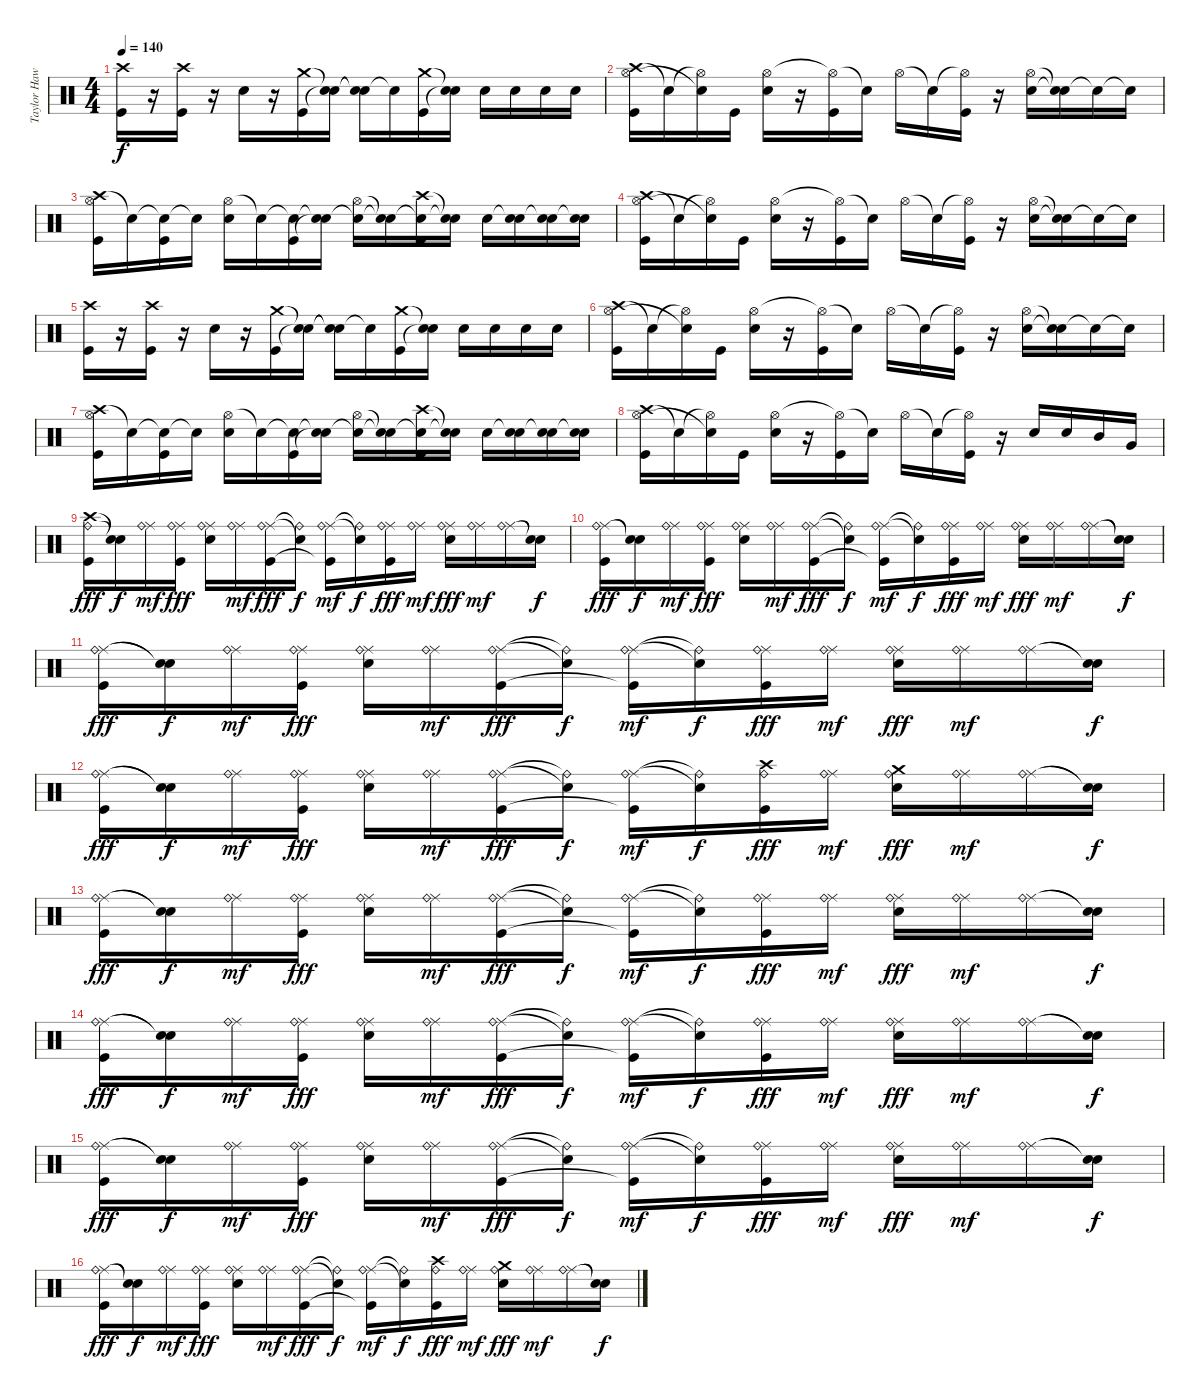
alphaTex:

\track ("Taylor Hawkings (Batería)" "Taylor Haw") {instrument percussion}
\staff {score}
\articulation defaults
\ts (4 4)
\tempo 140
\clef neutral
\ks c
("Crash high (hit)" "Kick (hit)").16{dy f} r.16 ("Crash high (hit)" "Kick (hit)").16 r.16 "Electric Snare (hit)".16 r.16 ("Crash medium (hit)" "Kick (hit)").16 ("Snare (hit)"{t} "Snare (hit)"{t}).16 ("Snare (hit)"{t} "Snare (hit)"{t}).16 "Snare (hit)"{t}.16 ("Crash medium (hit)" "Kick (hit)").16 ("Snare (hit)"{t} "Snare (hit)"{t}).16 "Electric Snare (hit)".16 "Electric Snare (hit)".16 "Electric Snare (hit)".16 "Electric Snare (hit)".16 |
("Crash high (hit)" "Hi-Hat (open)" "Kick (hit)").16 "Snare (hit)"{t}.16 ("Hi-Hat (open)"{t} "Snare (hit)"{t}).16 "Kick (hit)".16 ("Hi-Hat (open)" "Electric Snare (hit)").16 r.16 ("Hi-Hat (open)"{t} "Kick (hit)").16 "Snare (hit)"{t}.16 "Hi-Hat (open)".16 "Snare (hit)"{t}.16 ("Hi-Hat (open)"{t} "Kick (hit)").16 r.16 ("Hi-Hat (open)" "Electric Snare (hit)").16 ("Snare (hit)"{t} "Electric Snare (hit)"{t}).16 "Snare (hit)"{t}.16 "Snare (hit)"{t}.16 |
("Crash high (hit)" "Hi-Hat (open)" "Kick (hit)").16 "Snare (hit)"{t}.16 ("Snare (hit)"{t} "Kick (hit)").16 "Snare (hit)"{t}.16 ("Hi-Hat (open)" "Electric Snare (hit)").16 "Snare (hit)"{t}.16 ("Snare (hit)"{t} "Kick (hit)").16 ("Snare (hit)"{t} "Snare (hit)"{t}).16 ("Hi-Hat (open)" "Snare (hit)"{t}).16 ("Snare (hit)"{t} "Snare (hit)"{t}).16 ("Crash high (hit)" "Snare (hit)"{t} "Kick (hit)").16 ("Snare (hit)"{t} "Snare (hit)"{t}).16 "Electric Snare (hit)".16 ("Snare (hit)"{t} "Electric Snare (hit)").16 ("Snare (hit)"{t} "Electric Snare (hit)").16 ("Snare (hit)"{t} "Electric Snare (hit)").16 |
("Crash high (hit)" "Hi-Hat (open)" "Kick (hit)").16 "Snare (hit)"{t}.16 ("Hi-Hat (open)"{t} "Snare (hit)"{t}).16 "Kick (hit)".16 ("Hi-Hat (open)" "Electric Snare (hit)").16 r.16 ("Hi-Hat (open)"{t} "Kick (hit)").16 "Snare (hit)"{t}.16 "Hi-Hat (open)".16 "Snare (hit)"{t}.16 ("Hi-Hat (open)"{t} "Kick (hit)").16 r.16 ("Hi-Hat (open)" "Electric Snare (hit)").16 ("Snare (hit)"{t} "Electric Snare (hit)"{t}).16 "Snare (hit)"{t}.16 "Snare (hit)"{t}.16 |
("Crash high (hit)" "Kick (hit)").16 r.16 ("Crash high (hit)" "Kick (hit)").16 r.16 "Electric Snare (hit)".16 r.16 ("Crash medium (hit)" "Kick (hit)").16 ("Snare (hit)"{t} "Snare (hit)"{t}).16 ("Snare (hit)"{t} "Snare (hit)"{t}).16 "Snare (hit)"{t}.16 ("Crash medium (hit)" "Kick (hit)").16 ("Snare (hit)"{t} "Snare (hit)"{t}).16 "Electric Snare (hit)".16 "Electric Snare (hit)".16 "Electric Snare (hit)".16 "Electric Snare (hit)".16 |
("Crash high (hit)" "Hi-Hat (open)" "Kick (hit)").16 "Snare (hit)"{t}.16 ("Hi-Hat (open)"{t} "Snare (hit)"{t}).16 "Kick (hit)".16 ("Hi-Hat (open)" "Electric Snare (hit)").16 r.16 ("Hi-Hat (open)"{t} "Kick (hit)").16 "Snare (hit)"{t}.16 "Hi-Hat (open)".16 "Snare (hit)"{t}.16 ("Hi-Hat (open)"{t} "Kick (hit)").16 r.16 ("Hi-Hat (open)" "Electric Snare (hit)").16 ("Snare (hit)"{t} "Electric Snare (hit)"{t}).16 "Snare (hit)"{t}.16 "Snare (hit)"{t}.16 |
("Crash high (hit)" "Hi-Hat (open)" "Kick (hit)").16 "Snare (hit)"{t}.16 ("Snare (hit)"{t} "Kick (hit)").16 "Snare (hit)"{t}.16 ("Hi-Hat (open)" "Electric Snare (hit)").16 "Snare (hit)"{t}.16 ("Snare (hit)"{t} "Kick (hit)").16 ("Snare (hit)"{t} "Snare (hit)"{t}).16 ("Hi-Hat (open)" "Snare (hit)"{t}).16 ("Snare (hit)"{t} "Snare (hit)"{t}).16 ("Crash high (hit)" "Snare (hit)"{t} "Kick (hit)").16 ("Snare (hit)"{t} "Snare (hit)"{t}).16 "Electric Snare (hit)".16 ("Snare (hit)"{t} "Electric Snare (hit)").16 ("Snare (hit)"{t} "Electric Snare (hit)").16 ("Snare (hit)"{t} "Electric Snare (hit)").16 |
("Crash high (hit)" "Hi-Hat (open)" "Kick (hit)").16 "Snare (hit)"{t}.16 ("Hi-Hat (open)"{t} "Snare (hit)"{t}).16 "Kick (hit)".16 ("Hi-Hat (open)" "Electric Snare (hit)").16 r.16 ("Hi-Hat (open)"{t} "Kick (hit)").16 "Snare (hit)"{t}.16 "Hi-Hat (open)".16 "Snare (hit)"{t}.16 ("Hi-Hat (open)"{t} "Kick (hit)").16 r.16 "Electric Snare (hit)".16 "Electric Snare (hit)".16 "Mid Tom (hit)".16 "Very Low Tom (hit)".16 |
("Crash high (hit)" "Ride (bell)" "Kick (hit)").16{dy fff} ("Snare (hit)"{t} "Snare (hit)"{t}).16{dy f} ("Ride (middle)" "Ride (bell)").16{dy mf} ("Ride (middle)" "Ride (bell)" "Kick (hit)").16{dy fff} ("Ride (middle)" "Ride (bell)" "Electric Snare (hit)").16 ("Ride (middle)" "Ride (bell)").16{dy mf} ("Ride (middle)" "Ride (bell)" "Kick (hit)").16{dy fff} ("Snare (hit)"{t} "Ride (bell)"{t}).16{dy f} ("Ride (middle)" "Ride (bell)" "Kick (hit)"{t}).16{dy mf} ("Snare (hit)"{t} "Ride (bell)"{t}).16{dy f} ("Ride (middle)" "Ride (bell)" "Kick (hit)").16{dy fff} ("Ride (middle)" "Ride (bell)").16{dy mf} ("Ride (middle)" "Ride (bell)" "Electric Snare (hit)").16{dy fff} ("Ride (middle)" "Ride (bell)").16{dy mf} ("Ride (middle)" "Ride (bell)").16 ("Snare (hit)"{t} "Snare (hit)"{t}).16{dy f} |
("Ride (middle)" "Ride (bell)" "Kick (hit)").16{dy fff} ("Snare (hit)"{t} "Snare (hit)"{t}).16{dy f} ("Ride (middle)" "Ride (bell)").16{dy mf} ("Ride (middle)" "Ride (bell)" "Kick (hit)").16{dy fff} ("Ride (middle)" "Ride (bell)" "Electric Snare (hit)").16 ("Ride (middle)" "Ride (bell)").16{dy mf} ("Ride (middle)" "Ride (bell)" "Kick (hit)").16{dy fff} ("Snare (hit)"{t} "Ride (bell)"{t}).16{dy f} ("Ride (middle)" "Ride (bell)" "Kick (hit)"{t}).16{dy mf} ("Snare (hit)"{t} "Ride (bell)"{t}).16{dy f} ("Ride (middle)" "Ride (bell)" "Kick (hit)").16{dy fff} ("Ride (middle)" "Ride (bell)").16{dy mf} ("Ride (middle)" "Ride (bell)" "Electric Snare (hit)").16{dy fff} ("Ride (middle)" "Ride (bell)").16{dy mf} ("Ride (middle)" "Ride (bell)").16 ("Snare (hit)"{t} "Snare (hit)"{t}).16{dy f} |
("Ride (middle)" "Ride (bell)" "Kick (hit)").16{dy fff} ("Snare (hit)"{t} "Snare (hit)"{t}).16{dy f} ("Ride (middle)" "Ride (bell)").16{dy mf} ("Ride (middle)" "Ride (bell)" "Kick (hit)").16{dy fff} ("Ride (middle)" "Ride (bell)" "Electric Snare (hit)").16 ("Ride (middle)" "Ride (bell)").16{dy mf} ("Ride (middle)" "Ride (bell)" "Kick (hit)").16{dy fff} ("Snare (hit)"{t} "Ride (bell)"{t}).16{dy f} ("Ride (middle)" "Ride (bell)" "Kick (hit)"{t}).16{dy mf} ("Snare (hit)"{t} "Ride (bell)"{t}).16{dy f} ("Ride (middle)" "Ride (bell)" "Kick (hit)").16{dy fff} ("Ride (middle)" "Ride (bell)").16{dy mf} ("Ride (middle)" "Ride (bell)" "Electric Snare (hit)").16{dy fff} ("Ride (middle)" "Ride (bell)").16{dy mf} ("Ride (middle)" "Ride (bell)").16 ("Snare (hit)"{t} "Snare (hit)"{t}).16{dy f} |
("Ride (middle)" "Ride (bell)" "Kick (hit)").16{dy fff} ("Snare (hit)"{t} "Snare (hit)"{t}).16{dy f} ("Ride (middle)" "Ride (bell)").16{dy mf} ("Ride (middle)" "Ride (bell)" "Kick (hit)").16{dy fff} ("Ride (middle)" "Ride (bell)" "Electric Snare (hit)").16 ("Ride (middle)" "Ride (bell)").16{dy mf} ("Ride (middle)" "Ride (bell)" "Kick (hit)").16{dy fff} ("Snare (hit)"{t} "Ride (bell)"{t}).16{dy f} ("Ride (middle)" "Ride (bell)" "Kick (hit)"{t}).16{dy mf} ("Snare (hit)"{t} "Ride (bell)"{t}).16{dy f} ("Crash high (hit)" "Ride (bell)" "Kick (hit)").16{dy fff} ("Ride (middle)" "Ride (bell)").16{dy mf} ("Crash medium (hit)" "Ride (bell)" "Electric Snare (hit)").16{dy fff} ("Ride (middle)" "Ride (bell)").16{dy mf} ("Ride (middle)" "Ride (bell)").16 ("Snare (hit)"{t} "Snare (hit)"{t}).16{dy f} |
("Ride (middle)" "Ride (bell)" "Kick (hit)").16{dy fff} ("Snare (hit)"{t} "Snare (hit)"{t}).16{dy f} ("Ride (middle)" "Ride (bell)").16{dy mf} ("Ride (middle)" "Ride (bell)" "Kick (hit)").16{dy fff} ("Ride (middle)" "Ride (bell)" "Electric Snare (hit)").16 ("Ride (middle)" "Ride (bell)").16{dy mf} ("Ride (middle)" "Ride (bell)" "Kick (hit)").16{dy fff} ("Snare (hit)"{t} "Ride (bell)"{t}).16{dy f} ("Ride (middle)" "Ride (bell)" "Kick (hit)"{t}).16{dy mf} ("Snare (hit)"{t} "Ride (bell)"{t}).16{dy f} ("Ride (middle)" "Ride (bell)" "Kick (hit)").16{dy fff} ("Ride (middle)" "Ride (bell)").16{dy mf} ("Ride (middle)" "Ride (bell)" "Electric Snare (hit)").16{dy fff} ("Ride (middle)" "Ride (bell)").16{dy mf} ("Ride (middle)" "Ride (bell)").16 ("Snare (hit)"{t} "Snare (hit)"{t}).16{dy f} |
("Ride (middle)" "Ride (bell)" "Kick (hit)").16{dy fff} ("Snare (hit)"{t} "Snare (hit)"{t}).16{dy f} ("Ride (middle)" "Ride (bell)").16{dy mf} ("Ride (middle)" "Ride (bell)" "Kick (hit)").16{dy fff} ("Ride (middle)" "Ride (bell)" "Electric Snare (hit)").16 ("Ride (middle)" "Ride (bell)").16{dy mf} ("Ride (middle)" "Ride (bell)" "Kick (hit)").16{dy fff} ("Snare (hit)"{t} "Ride (bell)"{t}).16{dy f} ("Ride (middle)" "Ride (bell)" "Kick (hit)"{t}).16{dy mf} ("Snare (hit)"{t} "Ride (bell)"{t}).16{dy f} ("Ride (middle)" "Ride (bell)" "Kick (hit)").16{dy fff} ("Ride (middle)" "Ride (bell)").16{dy mf} ("Ride (middle)" "Ride (bell)" "Electric Snare (hit)").16{dy fff} ("Ride (middle)" "Ride (bell)").16{dy mf} ("Ride (middle)" "Ride (bell)").16 ("Snare (hit)"{t} "Snare (hit)"{t}).16{dy f} |
("Ride (middle)" "Ride (bell)" "Kick (hit)").16{dy fff} ("Snare (hit)"{t} "Snare (hit)"{t}).16{dy f} ("Ride (middle)" "Ride (bell)").16{dy mf} ("Ride (middle)" "Ride (bell)" "Kick (hit)").16{dy fff} ("Ride (middle)" "Ride (bell)" "Electric Snare (hit)").16 ("Ride (middle)" "Ride (bell)").16{dy mf} ("Ride (middle)" "Ride (bell)" "Kick (hit)").16{dy fff} ("Snare (hit)"{t} "Ride (bell)"{t}).16{dy f} ("Ride (middle)" "Ride (bell)" "Kick (hit)"{t}).16{dy mf} ("Snare (hit)"{t} "Ride (bell)"{t}).16{dy f} ("Ride (middle)" "Ride (bell)" "Kick (hit)").16{dy fff} ("Ride (middle)" "Ride (bell)").16{dy mf} ("Ride (middle)" "Ride (bell)" "Electric Snare (hit)").16{dy fff} ("Ride (middle)" "Ride (bell)").16{dy mf} ("Ride (middle)" "Ride (bell)").16 ("Snare (hit)"{t} "Snare (hit)"{t}).16{dy f} |
("Ride (middle)" "Ride (bell)" "Kick (hit)").16{dy fff} ("Snare (hit)"{t} "Snare (hit)"{t}).16{dy f} ("Ride (middle)" "Ride (bell)").16{dy mf} ("Ride (middle)" "Ride (bell)" "Kick (hit)").16{dy fff} ("Ride (middle)" "Ride (bell)" "Electric Snare (hit)").16 ("Ride (middle)" "Ride (bell)").16{dy mf} ("Ride (middle)" "Ride (bell)" "Kick (hit)").16{dy fff} ("Snare (hit)"{t} "Ride (bell)"{t}).16{dy f} ("Ride (middle)" "Ride (bell)" "Kick (hit)"{t}).16{dy mf} ("Snare (hit)"{t} "Ride (bell)"{t}).16{dy f} ("Crash high (hit)" "Ride (bell)" "Kick (hit)").16{dy fff} ("Ride (middle)" "Ride (bell)").16{dy mf} ("Crash medium (hit)" "Ride (bell)" "Electric Snare (hit)").16{dy fff} ("Ride (middle)" "Ride (bell)").16{dy mf} ("Ride (middle)" "Ride (bell)").16 ("Snare (hit)"{t} "Snare (hit)"{t}).16{dy f}
